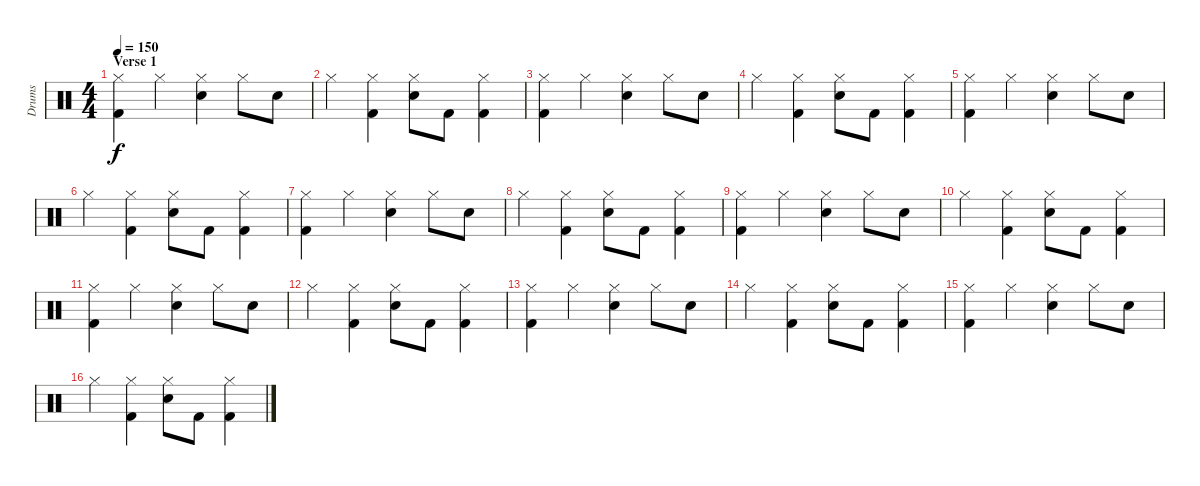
\track ("Drums" "Drums") {instrument percussion}
\staff {score}
\articulation defaults
\ts (4 4)
\section ("" "Verse 1")
\tempo 150
\clef neutral
\ks c
("Hi-Hat (closed)" "Kick (hit) 2").4{dy f} "Hi-Hat (closed)".4 ("Hi-Hat (closed)" "Electric Snare (hit)").4 "Hi-Hat (closed)".8 "Electric Snare (hit)".8 |
"Hi-Hat (closed)".4 ("Hi-Hat (closed)" "Kick (hit) 2").4 ("Hi-Hat (closed)" "Electric Snare (hit)").8 "Kick (hit) 2".8 ("Hi-Hat (closed)" "Kick (hit) 2").4 |
("Hi-Hat (closed)" "Kick (hit) 2").4 "Hi-Hat (closed)".4 ("Hi-Hat (closed)" "Electric Snare (hit)").4 "Hi-Hat (closed)".8 "Electric Snare (hit)".8 |
"Hi-Hat (closed)".4 ("Hi-Hat (closed)" "Kick (hit) 2").4 ("Hi-Hat (closed)" "Electric Snare (hit)").8 "Kick (hit) 2".8 ("Hi-Hat (closed)" "Kick (hit) 2").4 |
("Hi-Hat (closed)" "Kick (hit) 2").4 "Hi-Hat (closed)".4 ("Hi-Hat (closed)" "Electric Snare (hit)").4 "Hi-Hat (closed)".8 "Electric Snare (hit)".8 |
"Hi-Hat (closed)".4 ("Hi-Hat (closed)" "Kick (hit) 2").4 ("Hi-Hat (closed)" "Electric Snare (hit)").8 "Kick (hit) 2".8 ("Hi-Hat (closed)" "Kick (hit) 2").4 |
("Hi-Hat (closed)" "Kick (hit) 2").4 "Hi-Hat (closed)".4 ("Hi-Hat (closed)" "Electric Snare (hit)").4 "Hi-Hat (closed)".8 "Electric Snare (hit)".8 |
"Hi-Hat (closed)".4 ("Hi-Hat (closed)" "Kick (hit) 2").4 ("Hi-Hat (closed)" "Electric Snare (hit)").8 "Kick (hit) 2".8 ("Hi-Hat (closed)" "Kick (hit) 2").4 |
("Hi-Hat (closed)" "Kick (hit) 2").4 "Hi-Hat (closed)".4 ("Hi-Hat (closed)" "Electric Snare (hit)").4 "Hi-Hat (closed)".8 "Electric Snare (hit)".8 |
"Hi-Hat (closed)".4 ("Hi-Hat (closed)" "Kick (hit) 2").4 ("Hi-Hat (closed)" "Electric Snare (hit)").8 "Kick (hit) 2".8 ("Hi-Hat (closed)" "Kick (hit) 2").4 |
("Hi-Hat (closed)" "Kick (hit) 2").4 "Hi-Hat (closed)".4 ("Hi-Hat (closed)" "Electric Snare (hit)").4 "Hi-Hat (closed)".8 "Electric Snare (hit)".8 |
"Hi-Hat (closed)".4 ("Hi-Hat (closed)" "Kick (hit) 2").4 ("Hi-Hat (closed)" "Electric Snare (hit)").8 "Kick (hit) 2".8 ("Hi-Hat (closed)" "Kick (hit) 2").4 |
("Hi-Hat (closed)" "Kick (hit) 2").4 "Hi-Hat (closed)".4 ("Hi-Hat (closed)" "Electric Snare (hit)").4 "Hi-Hat (closed)".8 "Electric Snare (hit)".8 |
"Hi-Hat (closed)".4 ("Hi-Hat (closed)" "Kick (hit) 2").4 ("Hi-Hat (closed)" "Electric Snare (hit)").8 "Kick (hit) 2".8 ("Hi-Hat (closed)" "Kick (hit) 2").4 |
("Hi-Hat (closed)" "Kick (hit) 2").4 "Hi-Hat (closed)".4 ("Hi-Hat (closed)" "Electric Snare (hit)").4 "Hi-Hat (closed)".8 "Electric Snare (hit)".8 |
"Hi-Hat (closed)".4 ("Hi-Hat (closed)" "Kick (hit) 2").4 ("Hi-Hat (closed)" "Electric Snare (hit)").8 "Kick (hit) 2".8 ("Hi-Hat (closed)" "Kick (hit) 2").4
